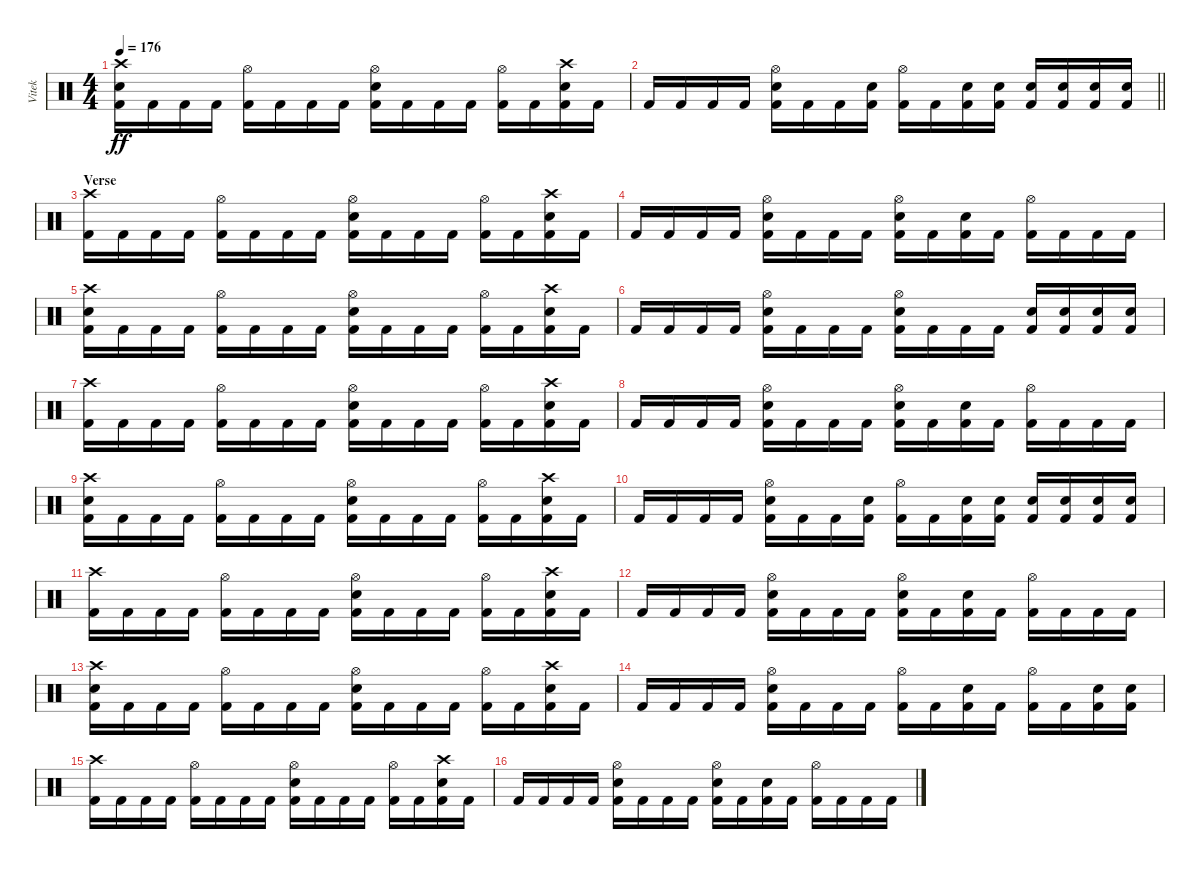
\track ("Vitek" "Vitek") {instrument percussion}
\staff {score}
\articulation defaults
\ts (4 4)
\tempo 176
\clef neutral
\ks c
("Crash high (hit)" "Electric Snare (hit)" "Kick (hit) 2").16{dy ff} "Kick (hit) 2".16 "Kick (hit) 2".16 "Kick (hit) 2".16 ("Hi-Hat (open)" "Kick (hit) 2").16 "Kick (hit) 2".16 "Kick (hit) 2".16 "Kick (hit) 2".16 ("Hi-Hat (open)" "Electric Snare (hit)" "Kick (hit) 2").16 "Kick (hit) 2".16 "Kick (hit) 2".16 "Kick (hit) 2".16 ("Hi-Hat (open)" "Kick (hit) 2").16 "Kick (hit) 2".16 ("Crash high (hit)" "Electric Snare (hit)" "Kick (hit) 2").16 "Kick (hit) 2".16 |
\barLineRight lightlight "Kick (hit) 2".16 "Kick (hit) 2".16 "Kick (hit) 2".16 "Kick (hit) 2".16
("Hi-Hat (open)" "Electric Snare (hit)" "Kick (hit) 2").16 "Kick (hit) 2".16 "Kick (hit) 2".16 ("Electric Snare (hit)" "Kick (hit) 2").16 ("Hi-Hat (open)" "Kick (hit) 2").16 "Kick (hit) 2".16 ("Electric Snare (hit)" "Kick (hit) 2").16 ("Electric Snare (hit)" "Kick (hit) 2").16 ("Electric Snare (hit)" "Kick (hit) 2").16 ("Electric Snare (hit)" "Kick (hit) 2").16 ("Electric Snare (hit)" "Kick (hit) 2").16 ("Electric Snare (hit)" "Kick (hit) 2").16 |
\section ("" "Verse")
("Crash high (hit)" "Kick (hit) 2").16 "Kick (hit) 2".16 "Kick (hit) 2".16 "Kick (hit) 2".16 ("Hi-Hat (open)" "Kick (hit) 2").16 "Kick (hit) 2".16 "Kick (hit) 2".16 "Kick (hit) 2".16 ("Hi-Hat (open)" "Electric Snare (hit)" "Kick (hit) 2").16 "Kick (hit) 2".16 "Kick (hit) 2".16 "Kick (hit) 2".16 ("Hi-Hat (open)" "Kick (hit) 2").16 "Kick (hit) 2".16 ("Crash high (hit)" "Electric Snare (hit)" "Kick (hit) 2").16 "Kick (hit) 2".16 |
"Kick (hit) 2".16 "Kick (hit) 2".16 "Kick (hit) 2".16 "Kick (hit) 2".16 ("Hi-Hat (open)" "Electric Snare (hit)" "Kick (hit) 2").16 "Kick (hit) 2".16 "Kick (hit) 2".16 "Kick (hit) 2".16 ("Hi-Hat (open)" "Electric Snare (hit)" "Kick (hit) 2").16 "Kick (hit) 2".16 ("Electric Snare (hit)" "Kick (hit) 2").16 "Kick (hit) 2".16 ("Hi-Hat (open)" "Kick (hit) 2").16 "Kick (hit) 2".16 "Kick (hit) 2".16 "Kick (hit) 2".16 |
("Crash high (hit)" "Electric Snare (hit)" "Kick (hit) 2").16 "Kick (hit) 2".16 "Kick (hit) 2".16 "Kick (hit) 2".16 ("Hi-Hat (open)" "Kick (hit) 2").16 "Kick (hit) 2".16 "Kick (hit) 2".16 "Kick (hit) 2".16 ("Hi-Hat (open)" "Electric Snare (hit)" "Kick (hit) 2").16 "Kick (hit) 2".16 "Kick (hit) 2".16 "Kick (hit) 2".16 ("Hi-Hat (open)" "Kick (hit) 2").16 "Kick (hit) 2".16 ("Crash high (hit)" "Electric Snare (hit)" "Kick (hit) 2").16 "Kick (hit) 2".16 |
"Kick (hit) 2".16 "Kick (hit) 2".16 "Kick (hit) 2".16 "Kick (hit) 2".16 ("Hi-Hat (open)" "Electric Snare (hit)" "Kick (hit) 2").16 "Kick (hit) 2".16 "Kick (hit) 2".16 "Kick (hit) 2".16 ("Hi-Hat (open)" "Electric Snare (hit)" "Kick (hit) 2").16 "Kick (hit) 2".16 "Kick (hit) 2".16 "Kick (hit) 2".16 ("Electric Snare (hit)" "Kick (hit) 2").16 ("Electric Snare (hit)" "Kick (hit) 2").16 ("Electric Snare (hit)" "Kick (hit) 2").16 ("Electric Snare (hit)" "Kick (hit) 2").16 |
("Crash high (hit)" "Kick (hit) 2").16 "Kick (hit) 2".16 "Kick (hit) 2".16 "Kick (hit) 2".16 ("Hi-Hat (open)" "Kick (hit) 2").16 "Kick (hit) 2".16 "Kick (hit) 2".16 "Kick (hit) 2".16 ("Hi-Hat (open)" "Electric Snare (hit)" "Kick (hit) 2").16 "Kick (hit) 2".16 "Kick (hit) 2".16 "Kick (hit) 2".16 ("Hi-Hat (open)" "Kick (hit) 2").16 "Kick (hit) 2".16 ("Crash high (hit)" "Electric Snare (hit)" "Kick (hit) 2").16 "Kick (hit) 2".16 |
"Kick (hit) 2".16 "Kick (hit) 2".16 "Kick (hit) 2".16 "Kick (hit) 2".16 ("Hi-Hat (open)" "Electric Snare (hit)" "Kick (hit) 2").16 "Kick (hit) 2".16 "Kick (hit) 2".16 "Kick (hit) 2".16 ("Hi-Hat (open)" "Electric Snare (hit)" "Kick (hit) 2").16 "Kick (hit) 2".16 ("Electric Snare (hit)" "Kick (hit) 2").16 "Kick (hit) 2".16 ("Hi-Hat (open)" "Kick (hit) 2").16 "Kick (hit) 2".16 "Kick (hit) 2".16 "Kick (hit) 2".16 |
("Crash high (hit)" "Electric Snare (hit)" "Kick (hit) 2").16 "Kick (hit) 2".16 "Kick (hit) 2".16 "Kick (hit) 2".16 ("Hi-Hat (open)" "Kick (hit) 2").16 "Kick (hit) 2".16 "Kick (hit) 2".16 "Kick (hit) 2".16 ("Hi-Hat (open)" "Electric Snare (hit)" "Kick (hit) 2").16 "Kick (hit) 2".16 "Kick (hit) 2".16 "Kick (hit) 2".16 ("Hi-Hat (open)" "Kick (hit) 2").16 "Kick (hit) 2".16 ("Crash high (hit)" "Electric Snare (hit)" "Kick (hit) 2").16 "Kick (hit) 2".16 |
"Kick (hit) 2".16 "Kick (hit) 2".16 "Kick (hit) 2".16 "Kick (hit) 2".16 ("Hi-Hat (open)" "Electric Snare (hit)" "Kick (hit) 2").16 "Kick (hit) 2".16 "Kick (hit) 2".16 ("Electric Snare (hit)" "Kick (hit) 2").16 ("Hi-Hat (open)" "Kick (hit) 2").16 "Kick (hit) 2".16 ("Electric Snare (hit)" "Kick (hit) 2").16 ("Electric Snare (hit)" "Kick (hit) 2").16 ("Electric Snare (hit)" "Kick (hit) 2").16 ("Electric Snare (hit)" "Kick (hit) 2").16 ("Electric Snare (hit)" "Kick (hit) 2").16 ("Electric Snare (hit)" "Kick (hit) 2").16 |
("Crash high (hit)" "Kick (hit) 2").16 "Kick (hit) 2".16 "Kick (hit) 2".16 "Kick (hit) 2".16 ("Hi-Hat (open)" "Kick (hit) 2").16 "Kick (hit) 2".16 "Kick (hit) 2".16 "Kick (hit) 2".16 ("Hi-Hat (open)" "Electric Snare (hit)" "Kick (hit) 2").16 "Kick (hit) 2".16 "Kick (hit) 2".16 "Kick (hit) 2".16 ("Hi-Hat (open)" "Kick (hit) 2").16 "Kick (hit) 2".16 ("Crash high (hit)" "Electric Snare (hit)" "Kick (hit) 2").16 "Kick (hit) 2".16 |
"Kick (hit) 2".16 "Kick (hit) 2".16 "Kick (hit) 2".16 "Kick (hit) 2".16 ("Hi-Hat (open)" "Electric Snare (hit)" "Kick (hit) 2").16 "Kick (hit) 2".16 "Kick (hit) 2".16 "Kick (hit) 2".16 ("Hi-Hat (open)" "Electric Snare (hit)" "Kick (hit) 2").16 "Kick (hit) 2".16 ("Electric Snare (hit)" "Kick (hit) 2").16 "Kick (hit) 2".16 ("Hi-Hat (open)" "Kick (hit) 2").16 "Kick (hit) 2".16 "Kick (hit) 2".16 "Kick (hit) 2".16 |
("Crash high (hit)" "Electric Snare (hit)" "Kick (hit) 2").16 "Kick (hit) 2".16 "Kick (hit) 2".16 "Kick (hit) 2".16 ("Hi-Hat (open)" "Kick (hit) 2").16 "Kick (hit) 2".16 "Kick (hit) 2".16 "Kick (hit) 2".16 ("Hi-Hat (open)" "Electric Snare (hit)" "Kick (hit) 2").16 "Kick (hit) 2".16 "Kick (hit) 2".16 "Kick (hit) 2".16 ("Hi-Hat (open)" "Kick (hit) 2").16 "Kick (hit) 2".16 ("Crash high (hit)" "Electric Snare (hit)" "Kick (hit) 2").16 "Kick (hit) 2".16 |
"Kick (hit) 2".16 "Kick (hit) 2".16 "Kick (hit) 2".16 "Kick (hit) 2".16 ("Hi-Hat (open)" "Electric Snare (hit)" "Kick (hit) 2").16 "Kick (hit) 2".16 "Kick (hit) 2".16 "Kick (hit) 2".16 ("Hi-Hat (open)" "Kick (hit) 2").16 "Kick (hit) 2".16 ("Electric Snare (hit)" "Kick (hit) 2").16 "Kick (hit) 2".16 ("Hi-Hat (open)" "Kick (hit) 2").16 "Kick (hit) 2".16 ("Electric Snare (hit)" "Kick (hit) 2").16 ("Electric Snare (hit)" "Kick (hit) 2").16 |
("Crash high (hit)" "Kick (hit) 2").16 "Kick (hit) 2".16 "Kick (hit) 2".16 "Kick (hit) 2".16 ("Hi-Hat (open)" "Kick (hit) 2").16 "Kick (hit) 2".16 "Kick (hit) 2".16 "Kick (hit) 2".16 ("Hi-Hat (open)" "Electric Snare (hit)" "Kick (hit) 2").16 "Kick (hit) 2".16 "Kick (hit) 2".16 "Kick (hit) 2".16 ("Hi-Hat (open)" "Kick (hit) 2").16 "Kick (hit) 2".16 ("Crash high (hit)" "Electric Snare (hit)" "Kick (hit) 2").16 "Kick (hit) 2".16 |
"Kick (hit) 2".16 "Kick (hit) 2".16 "Kick (hit) 2".16 "Kick (hit) 2".16 ("Hi-Hat (open)" "Electric Snare (hit)" "Kick (hit) 2").16 "Kick (hit) 2".16 "Kick (hit) 2".16 "Kick (hit) 2".16 ("Hi-Hat (open)" "Electric Snare (hit)" "Kick (hit) 2").16 "Kick (hit) 2".16 ("Electric Snare (hit)" "Kick (hit) 2").16 "Kick (hit) 2".16 ("Hi-Hat (open)" "Kick (hit) 2").16 "Kick (hit) 2".16 "Kick (hit) 2".16 "Kick (hit) 2".16
